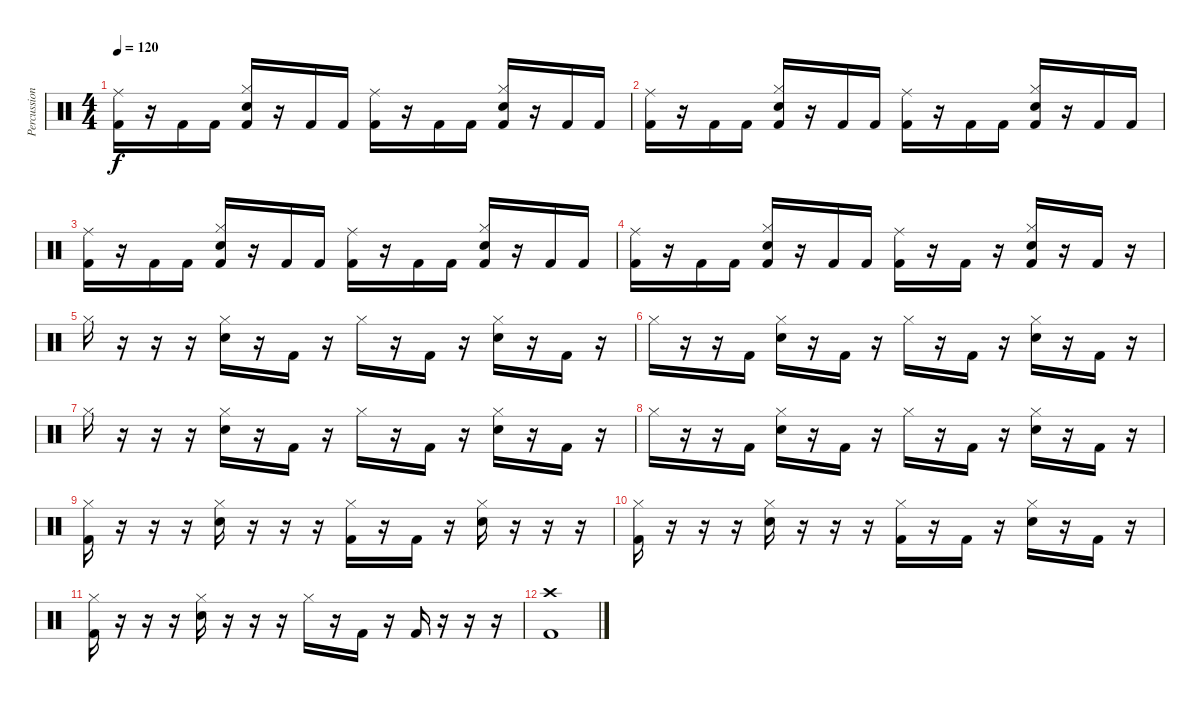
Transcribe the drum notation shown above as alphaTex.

\track ("Percussions" "Percussion") {instrument percussion}
\staff {score}
\articulation defaults
\ts (4 4)
\tempo 120
\clef neutral
\ks c
("Ride (middle)" "Kick (hit) 2").16{dy f} r.16 "Kick (hit) 2".16 "Kick (hit) 2".16 ("Hi-Hat (closed)" "Kick (hit) 2" "Snare (hit) 2").16 r.16 "Kick (hit) 2".16 "Kick (hit) 2".16 ("Ride (middle)" "Kick (hit) 2").16 r.16 "Kick (hit) 2".16 "Kick (hit) 2".16 ("Hi-Hat (closed)" "Kick (hit) 2" "Snare (hit) 2").16 r.16 "Kick (hit) 2".16 "Kick (hit) 2".16 |
("Ride (middle)" "Kick (hit) 2").16 r.16 "Kick (hit) 2".16 "Kick (hit) 2".16 ("Hi-Hat (closed)" "Kick (hit) 2" "Snare (hit) 2").16 r.16 "Kick (hit) 2".16 "Kick (hit) 2".16 ("Ride (middle)" "Kick (hit) 2").16 r.16 "Kick (hit) 2".16 "Kick (hit) 2".16 ("Hi-Hat (closed)" "Kick (hit) 2" "Snare (hit) 2").16 r.16 "Kick (hit) 2".16 "Kick (hit) 2".16 |
("Ride (middle)" "Kick (hit) 2").16 r.16 "Kick (hit) 2".16 "Kick (hit) 2".16 ("Hi-Hat (closed)" "Kick (hit) 2" "Snare (hit) 2").16 r.16 "Kick (hit) 2".16 "Kick (hit) 2".16 ("Ride (middle)" "Kick (hit) 2").16 r.16 "Kick (hit) 2".16 "Kick (hit) 2".16 ("Hi-Hat (closed)" "Kick (hit) 2" "Snare (hit) 2").16 r.16 "Kick (hit) 2".16 "Kick (hit) 2".16 |
("Ride (middle)" "Kick (hit) 2").16 r.16 "Kick (hit) 2".16 "Kick (hit) 2".16 ("Hi-Hat (closed)" "Kick (hit) 2" "Snare (hit) 2").16 r.16 "Kick (hit) 2".16 "Kick (hit) 2".16 ("Ride (middle)" "Kick (hit) 2").16 r.16 "Kick (hit) 2".16 r.16 ("Hi-Hat (closed)" "Kick (hit) 2" "Snare (hit) 2").16 r.16 "Kick (hit) 2".16 r.16 |
"Hi-Hat (closed)".16 r.16 r.16 r.16 ("Hi-Hat (closed)" "Snare (hit) 2").16 r.16 "Kick (hit) 2".16 r.16 "Hi-Hat (closed)".16 r.16 "Kick (hit) 2".16 r.16 ("Hi-Hat (closed)" "Snare (hit) 2").16 r.16 "Kick (hit) 2".16 r.16 |
"Hi-Hat (closed)".16 r.16 r.16 "Kick (hit) 2".16 ("Hi-Hat (closed)" "Snare (hit) 2").16 r.16 "Kick (hit) 2".16 r.16 "Hi-Hat (closed)".16 r.16 "Kick (hit) 2".16 r.16 ("Hi-Hat (closed)" "Snare (hit) 2").16 r.16 "Kick (hit) 2".16 r.16 |
"Hi-Hat (closed)".16 r.16 r.16 r.16 ("Hi-Hat (closed)" "Snare (hit) 2").16 r.16 "Kick (hit) 2".16 r.16 "Hi-Hat (closed)".16 r.16 "Kick (hit) 2".16 r.16 ("Hi-Hat (closed)" "Snare (hit) 2").16 r.16 "Kick (hit) 2".16 r.16 |
"Hi-Hat (closed)".16 r.16 r.16 "Kick (hit) 2".16 ("Hi-Hat (closed)" "Snare (hit) 2").16 r.16 "Kick (hit) 2".16 r.16 "Hi-Hat (closed)".16 r.16 "Kick (hit) 2".16 r.16 ("Hi-Hat (closed)" "Snare (hit) 2").16 r.16 "Kick (hit) 2".16 r.16 |
("Hi-Hat (closed)" "Kick (hit) 2").16 r.16 r.16 r.16 ("Hi-Hat (closed)" "Snare (hit) 2").16 r.16 r.16 r.16 ("Hi-Hat (closed)" "Kick (hit) 2").16 r.16 "Kick (hit) 2".16 r.16 ("Hi-Hat (closed)" "Snare (hit) 2").16 r.16 r.16 r.16 |
("Hi-Hat (closed)" "Kick (hit) 2").16 r.16 r.16 r.16 ("Hi-Hat (closed)" "Snare (hit) 2").16 r.16 r.16 r.16 ("Hi-Hat (closed)" "Kick (hit) 2").16 r.16 "Kick (hit) 2".16 r.16 ("Hi-Hat (closed)" "Snare (hit) 2").16 r.16 "Kick (hit) 2".16 r.16 |
("Hi-Hat (closed)" "Kick (hit) 2").16 r.16 r.16 r.16 ("Hi-Hat (closed)" "Snare (hit) 2").16 r.16 r.16 r.16 "Hi-Hat (closed)".16 r.16 "Kick (hit) 2".16 r.16 "Kick (hit) 2".16 r.16 r.16 r.16 |
("Crash high (hit)" "Kick (hit) 2").1
